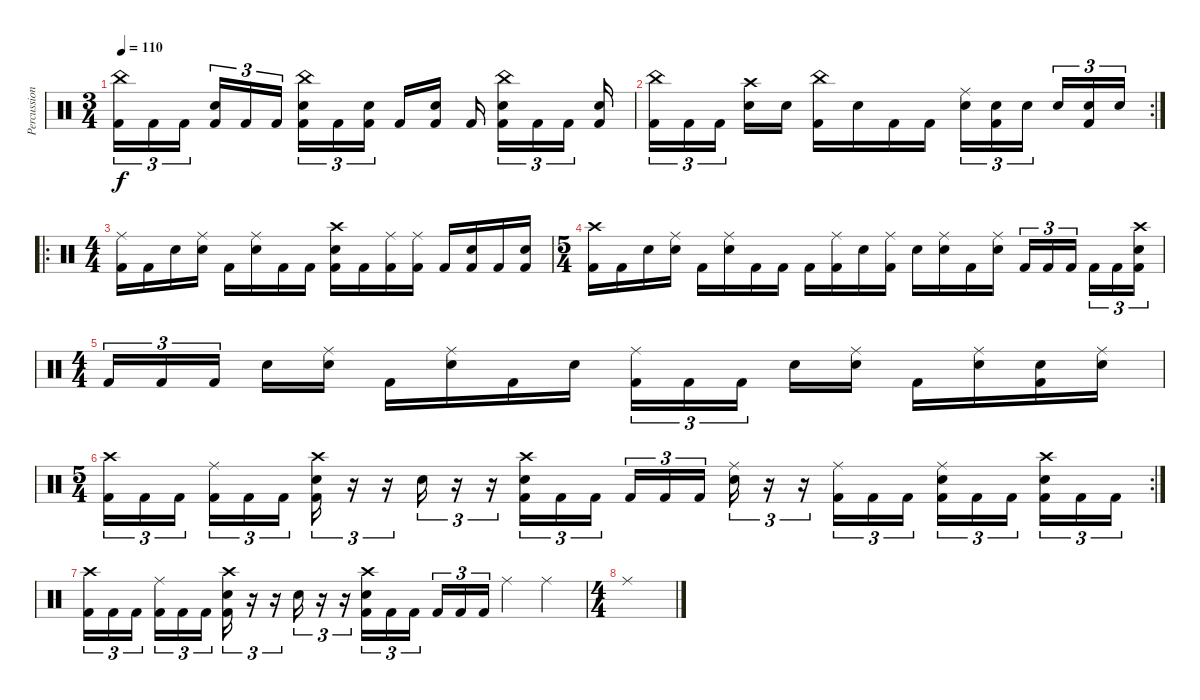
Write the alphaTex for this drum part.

\track ("Percussion" "Percussion") {instrument percussion}
\staff {score}
\articulation defaults
\ts (3 4)
\tempo 110
\clef neutral
\ks c
("China (hit)" "Kick (hit) 2").16{tu (3 2) dy f} "Kick (hit) 2".16{tu (3 2)} "Kick (hit) 2".16{tu (3 2) beam splitsecondary} ("Snare (hit) 2" "Kick (hit) 2").16{tu (3 2)} "Kick (hit) 2".16{tu (3 2)} "Kick (hit) 2".16{tu (3 2)} ("China (hit)" "Snare (hit) 2" "Kick (hit) 2").16{tu (3 2)} "Kick (hit) 2".16{tu (3 2)} ("Snare (hit) 2" "Kick (hit) 2").16{tu (3 2) beam splitsecondary} "Kick (hit) 2".16 ("Snare (hit) 2" "Kick (hit) 2").16 "Kick (hit) 2".16{beam splitsecondary} ("China (hit)" "Snare (hit) 2" "Kick (hit) 2").16{tu (3 2)} "Kick (hit) 2".16{tu (3 2)} "Kick (hit) 2".16{tu (3 2) beam splitsecondary} ("Snare (hit) 2" "Kick (hit) 2").16 |
\rc 2
("China (hit)" "Kick (hit) 2").16{tu (3 2)} "Kick (hit) 2".16{tu (3 2)} "Kick (hit) 2".16{tu (3 2) beam splitsecondary} ("Crash high (hit)" "Snare (hit) 2").16 "Snare (hit) 2".16 ("China (hit)" "Kick (hit) 2").16 "Snare (hit) 2".16 "Kick (hit) 2".16 "Kick (hit) 2".16 ("Ride (middle)" "Snare (hit) 2").16{tu (3 2)} ("Snare (hit) 2" "Kick (hit) 2").16{tu (3 2)} "Snare (hit) 2".16{tu (3 2) beam splitsecondary} "Snare (hit) 2".16{tu (3 2)} ("Snare (hit) 2" "Kick (hit) 2").16{tu (3 2)} "Snare (hit) 2".16{tu (3 2)} |
\ro
\ts (4 4)
("Ride (middle)" "Kick (hit) 2").16 "Kick (hit) 2".16 "Snare (hit) 2".16 ("Ride (middle)" "Snare (hit) 2").16 "Kick (hit) 2".16 ("Ride (middle)" "Snare (hit) 2").16 "Kick (hit) 2".16 "Kick (hit) 2".16 ("Crash high (hit)" "Snare (hit) 2" "Kick (hit) 2").16 "Kick (hit) 2".16 ("Ride (middle)" "Kick (hit) 2").16 ("Ride (middle)" "Kick (hit) 2").16 "Kick (hit) 2".16 ("Snare (hit) 2" "Kick (hit) 2").16 "Kick (hit) 2".16 ("Snare (hit) 2" "Kick (hit) 2").16 |
\ts (5 4)
("Crash high (hit)" "Kick (hit) 2").16 "Kick (hit) 2".16 "Snare (hit) 2".16 ("Ride (middle)" "Snare (hit) 2").16 "Kick (hit) 2".16 ("Ride (middle)" "Snare (hit) 2").16 "Kick (hit) 2".16 "Kick (hit) 2".16 "Kick (hit) 2".16 ("Ride (middle)" "Kick (hit) 2").16 "Snare (hit) 2".16 ("Ride (middle)" "Kick (hit) 2").16 "Snare (hit) 2".16 ("Ride (middle)" "Snare (hit) 2").16 "Kick (hit) 2".16 ("Ride (middle)" "Snare (hit) 2").16 "Kick (hit) 2".16{tu (3 2)} "Kick (hit) 2".16{tu (3 2)} "Kick (hit) 2".16{tu (3 2) beam splitsecondary} "Kick (hit) 2".16{tu (3 2)} "Kick (hit) 2".16{tu (3 2)} ("Crash high (hit)" "Snare (hit) 2" "Kick (hit) 2").16{tu (3 2)} |
\ts (4 4)
"Kick (hit) 2".16{tu (3 2)} "Kick (hit) 2".16{tu (3 2)} "Kick (hit) 2".16{tu (3 2) beam splitsecondary} "Snare (hit) 2".16 ("Ride (middle)" "Snare (hit) 2").16 "Kick (hit) 2".16 ("Ride (middle)" "Snare (hit) 2").16 "Kick (hit) 2".16 "Snare (hit) 2".16 ("Ride (middle)" "Kick (hit) 2").16{tu (3 2)} "Kick (hit) 2".16{tu (3 2)} "Kick (hit) 2".16{tu (3 2) beam splitsecondary} "Snare (hit) 2".16 ("Ride (middle)" "Snare (hit) 2").16 "Kick (hit) 2".16 ("Ride (middle)" "Snare (hit) 2").16 ("Snare (hit) 2" "Kick (hit) 2").16 ("Ride (middle)" "Snare (hit) 2").16 |
\rc 2
\ts (5 4)
("Crash high (hit)" "Kick (hit) 2").16{tu (3 2)} "Kick (hit) 2".16{tu (3 2)} "Kick (hit) 2".16{tu (3 2) beam splitsecondary} ("Ride (middle)" "Kick (hit) 2").16{tu (3 2)} "Kick (hit) 2".16{tu (3 2)} "Kick (hit) 2".16{tu (3 2)} ("Crash high (hit)" "Snare (hit) 2" "Kick (hit) 2").16{tu (3 2)} r.16{tu (3 2)} r.16{tu (3 2)} "Snare (hit) 2".16{tu (3 2)} r.16{tu (3 2)} r.16{tu (3 2)} ("Crash high (hit)" "Snare (hit) 2" "Kick (hit) 2").16{tu (3 2)} "Kick (hit) 2".16{tu (3 2)} "Kick (hit) 2".16{tu (3 2) beam splitsecondary} "Kick (hit) 2".16{tu (3 2)} "Kick (hit) 2".16{tu (3 2)} "Kick (hit) 2".16{tu (3 2)} ("Ride (middle)" "Snare (hit) 2").16{tu (3 2)} r.16{tu (3 2)} r.16{tu (3 2)} ("Ride (middle)" "Kick (hit) 2").16{tu (3 2)} "Kick (hit) 2".16{tu (3 2)} "Kick (hit) 2".16{tu (3 2)} ("Ride (middle)" "Snare (hit) 2" "Kick (hit) 2").16{tu (3 2)} "Kick (hit) 2".16{tu (3 2)} "Kick (hit) 2".16{tu (3 2) beam splitsecondary} ("Crash high (hit)" "Snare (hit) 2" "Kick (hit) 2").16{tu (3 2)} "Kick (hit) 2".16{tu (3 2)} "Kick (hit) 2".16{tu (3 2)} |
("Crash high (hit)" "Kick (hit) 2").16{tu (3 2)} "Kick (hit) 2".16{tu (3 2)} "Kick (hit) 2".16{tu (3 2) beam splitsecondary} ("Ride (middle)" "Kick (hit) 2").16{tu (3 2)} "Kick (hit) 2".16{tu (3 2)} "Kick (hit) 2".16{tu (3 2)} ("Crash high (hit)" "Snare (hit) 2" "Kick (hit) 2").16{tu (3 2)} r.16{tu (3 2)} r.16{tu (3 2)} "Snare (hit) 2".16{tu (3 2)} r.16{tu (3 2)} r.16{tu (3 2)} ("Crash high (hit)" "Snare (hit) 2" "Kick (hit) 2").16{tu (3 2)} "Kick (hit) 2".16{tu (3 2)} "Kick (hit) 2".16{tu (3 2) beam splitsecondary} "Kick (hit) 2".16{tu (3 2)} "Kick (hit) 2".16{tu (3 2)} "Kick (hit) 2".16{tu (3 2)} "Ride (middle)".4 "Ride (middle)".4 |
\ts (4 4)
"Ride (middle)".1
